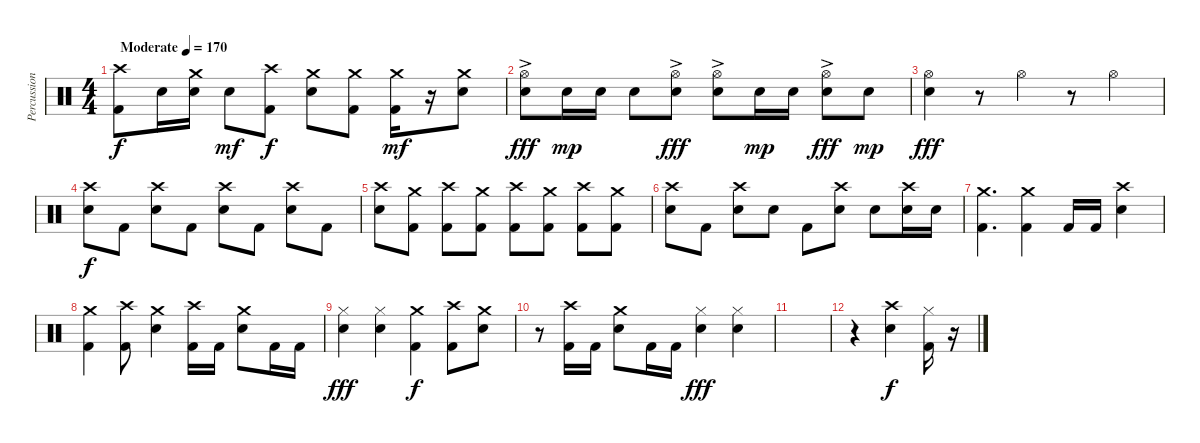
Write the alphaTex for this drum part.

\track ("Percussion" "Percussion") {instrument percussion}
\staff {score}
\articulation defaults
\ts (4 4)
\tempo (170 "Moderate")
\clef neutral
\ks c
("Crash high (hit)" "Kick (hit) 2").8{dy f} "Electric Snare (hit)".16 ("Crash medium (hit)" "Electric Snare (hit)").16 "Electric Snare (hit)".8{dy mf} ("Crash high (hit)" "Kick (hit) 2").8{dy f} ("Crash medium (hit)" "Electric Snare (hit)").8 ("Crash medium (hit)" "Kick (hit) 2").8 ("Crash medium (hit)" "Kick (hit) 2").16{dy mf} r.16 ("Crash medium (hit)" "Electric Snare (hit)").8 |
("Hi-Hat (open)" "Electric Snare (hit)"{ac}).8{dy fff} "Electric Snare (hit)".16{dy mp} "Electric Snare (hit)".16 "Electric Snare (hit)".8 ("Hi-Hat (open)" "Electric Snare (hit)"{ac}).8{dy fff} ("Hi-Hat (open)" "Electric Snare (hit)"{ac}).8 "Electric Snare (hit)".16{dy mp} "Electric Snare (hit)".16 ("Hi-Hat (open)" "Electric Snare (hit)"{ac}).8{dy fff} "Electric Snare (hit)".8{dy mp} |
("Hi-Hat (open)" "Electric Snare (hit)").4{dy fff} r.8 "Hi-Hat (open)".4 r.8 "Hi-Hat (open)".4 |
("Crash high (hit)" "Electric Snare (hit)").8{dy f} "Kick (hit) 2".8 ("Crash high (hit)" "Electric Snare (hit)").8 "Kick (hit) 2".8 ("Crash high (hit)" "Electric Snare (hit)").8 "Kick (hit) 2".8 ("Crash high (hit)" "Electric Snare (hit)").8 "Kick (hit) 2".8 |
("Crash high (hit)" "Electric Snare (hit)").8 ("Crash medium (hit)" "Kick (hit) 2").8 ("Crash high (hit)" "Kick (hit) 2").8 ("Crash medium (hit)" "Kick (hit) 2").8 ("Crash high (hit)" "Kick (hit) 2").8 ("Crash medium (hit)" "Kick (hit) 2").8 ("Crash high (hit)" "Kick (hit) 2").8 ("Crash medium (hit)" "Kick (hit) 2").8 |
("Crash high (hit)" "Electric Snare (hit)").8 "Kick (hit) 2".8 ("Crash high (hit)" "Electric Snare (hit)").8 "Electric Snare (hit)".8 "Kick (hit) 2".8 ("Crash high (hit)" "Electric Snare (hit)").8 "Electric Snare (hit)".8 ("Crash high (hit)" "Electric Snare (hit)").16 "Electric Snare (hit)".16 |
("Crash medium (hit)" "Kick (hit) 2").4{d} ("Crash medium (hit)" "Kick (hit) 2").4 "Kick (hit) 2".16 "Kick (hit) 2".16 ("Crash high (hit)" "Electric Snare (hit)").4 |
("Crash medium (hit)" "Kick (hit) 2").4 ("Crash high (hit)" "Kick (hit) 2").8 ("Crash medium (hit)" "Electric Snare (hit)").4 ("Crash high (hit)" "Kick (hit) 2").16 "Kick (hit) 2".16 ("Crash medium (hit)" "Electric Snare (hit)").8 "Kick (hit) 2".16 "Kick (hit) 2".16 |
("Hi-Hat (closed)" "Electric Snare (hit)").4{dy fff} ("Hi-Hat (closed)" "Electric Snare (hit)").4 ("Crash medium (hit)" "Kick (hit) 2").4{dy f} ("Crash high (hit)" "Kick (hit) 2").8 ("Crash medium (hit)" "Electric Snare (hit)").8 |
r.8 ("Crash high (hit)" "Kick (hit) 2").16 "Kick (hit) 2".16 ("Crash medium (hit)" "Electric Snare (hit)").8 "Kick (hit) 2".16 "Kick (hit) 2".16 ("Hi-Hat (closed)" "Electric Snare (hit)").4{dy fff} ("Hi-Hat (closed)" "Electric Snare (hit)").4 |
|
r.4 ("Crash high (hit)" "Electric Snare (hit)").4{dy f} ("Hi-Hat (closed)" "Kick (hit) 2").16 r.16
